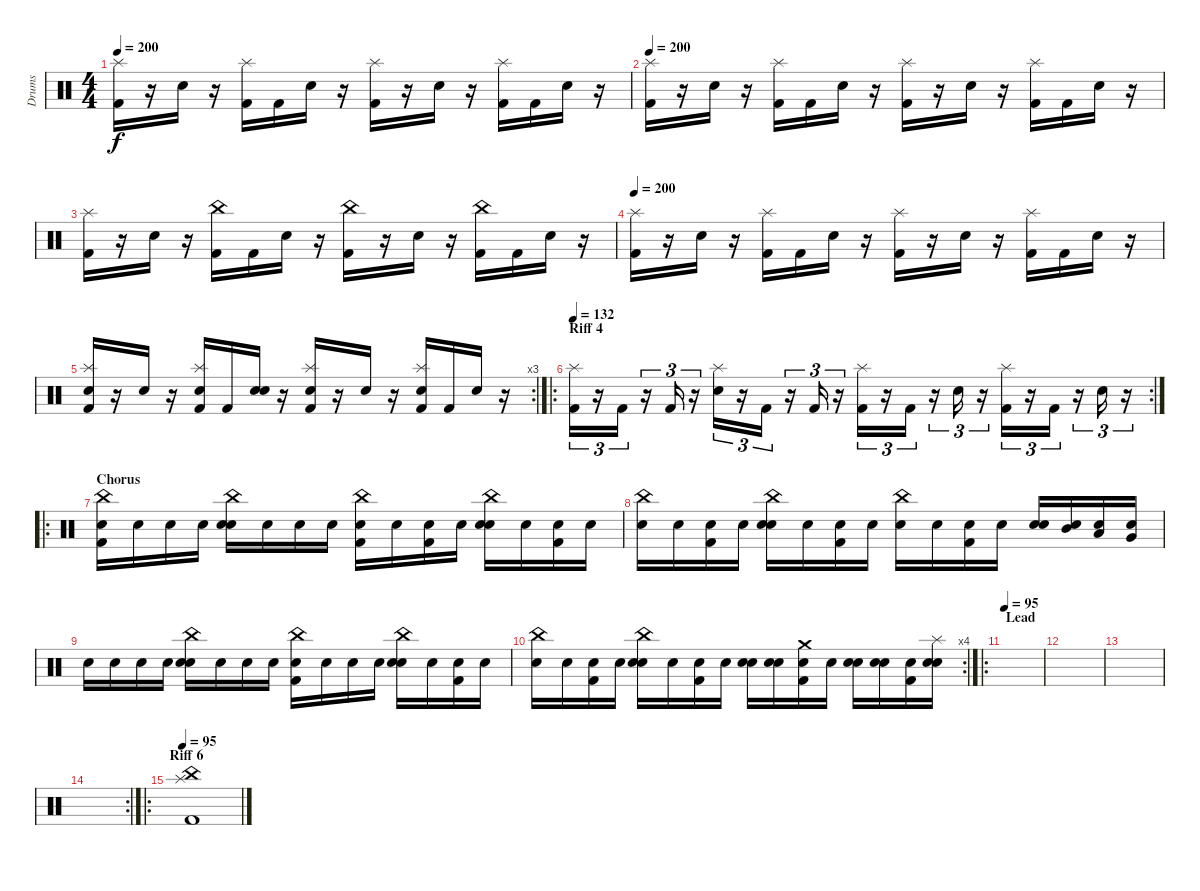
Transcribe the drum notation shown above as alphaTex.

\track ("Drums" "Drums") {instrument percussion}
\staff {score}
\articulation defaults
\ts (4 4)
\tempo 200
\clef neutral
\ks c
("Kick (hit) 2" "Splash (hit)").16{dy f} r.16 "Snare (hit) 2".16 r.16 ("Kick (hit) 2" "Splash (hit)").16 "Kick (hit) 2".16 "Snare (hit) 2".16 r.16 ("Kick (hit) 2" "Splash (hit)").16 r.16 "Snare (hit) 2".16 r.16 ("Kick (hit) 2" "Splash (hit)").16 "Kick (hit) 2".16 "Snare (hit) 2".16 r.16 |
\tempo 200
("Kick (hit) 2" "Splash (hit)").16 r.16 "Snare (hit) 2".16 r.16 ("Kick (hit) 2" "Splash (hit)").16 "Kick (hit) 2".16 "Snare (hit) 2".16 r.16 ("Kick (hit) 2" "Splash (hit)").16 r.16 "Snare (hit) 2".16 r.16 ("Kick (hit) 2" "Splash (hit)").16 "Kick (hit) 2".16 "Snare (hit) 2".16 r.16 |
("Kick (hit) 2" "Splash (hit)").16 r.16 "Snare (hit) 2".16 r.16 ("Kick (hit) 2" "China (hit)").16 "Kick (hit) 2".16 "Snare (hit) 2".16 r.16 ("Kick (hit) 2" "China (hit)").16 r.16 "Snare (hit) 2".16 r.16 ("Kick (hit) 2" "China (hit)").16 "Kick (hit) 2".16 "Snare (hit) 2".16 r.16 |
\tempo 200
("Kick (hit) 2" "Splash (hit)").16 r.16 "Snare (hit) 2".16 r.16 ("Kick (hit) 2" "Splash (hit)").16 "Kick (hit) 2".16 "Snare (hit) 2".16 r.16 ("Kick (hit) 2" "Splash (hit)").16 r.16 "Snare (hit) 2".16 r.16 ("Kick (hit) 2" "Splash (hit)").16 "Kick (hit) 2".16 "Snare (hit) 2".16 r.16 |
\rc 3
("Kick (hit) 2" "Snare (hit) 2" "Splash (hit)").16 r.16 "Snare (hit) 2".16 r.16 ("Kick (hit) 2" "Snare (hit) 2" "Splash (hit)").16 "Kick (hit) 2".16 ("Snare (hit) 2" "Snare (hit) 2").16 r.16 ("Kick (hit) 2" "Snare (hit) 2" "Splash (hit)").16 r.16 "Snare (hit) 2".16 r.16 ("Kick (hit) 2" "Snare (hit) 2" "Splash (hit)").16 "Kick (hit) 2".16 "Snare (hit) 2".16 r.16 |
\ro
\rc 2
\section ("" "Riff 4")
\tempo 132
("Kick (hit) 2" "Splash (hit)").16{tu (3 2)} r.16{tu (3 2)} "Kick (hit) 2".16{tu (3 2)} r.16{tu (3 2)} "Kick (hit) 2".16{tu (3 2)} r.16{tu (3 2)} ("Snare (hit) 2" "Splash (hit)").16{tu (3 2)} r.16{tu (3 2)} "Kick (hit) 2".16{tu (3 2)} r.16{tu (3 2)} "Kick (hit) 2".16{tu (3 2)} r.16{tu (3 2)} ("Kick (hit) 2" "Splash (hit)").16{tu (3 2)} r.16{tu (3 2)} "Kick (hit) 2".16{tu (3 2)} r.16{tu (3 2)} "Snare (hit) 2".16{tu (3 2)} r.16{tu (3 2)} ("Kick (hit) 2" "Splash (hit)").16{tu (3 2)} r.16{tu (3 2)} "Kick (hit) 2".16{tu (3 2)} r.16{tu (3 2)} "Snare (hit) 2".16{tu (3 2)} r.16{tu (3 2)} |
\ro
\section ("" "Chorus")
("Snare (hit)" "Kick (hit) 2" "China (hit)").16 "Snare (hit)".16 "Snare (hit)".16 "Snare (hit)".16 ("Snare (hit)" "Snare (hit) 2" "China (hit)").16 "Snare (hit)".16 "Snare (hit)".16 "Snare (hit)".16 ("Snare (hit)" "Kick (hit) 2" "China (hit)").16 "Snare (hit)".16 ("Snare (hit)" "Kick (hit) 2").16 "Snare (hit)".16 ("Snare (hit)" "Snare (hit) 2" "China (hit)").16 "Snare (hit)".16 ("Snare (hit)" "Kick (hit) 2").16 "Snare (hit)".16 |
("Snare (hit)" "China (hit)").16 "Snare (hit)".16 ("Snare (hit)" "Kick (hit) 2").16 "Snare (hit)".16 ("Snare (hit)" "Snare (hit) 2" "China (hit)").16 "Snare (hit)".16 ("Snare (hit)" "Kick (hit) 2").16 "Snare (hit)".16 ("Snare (hit)" "China (hit)").16 "Snare (hit)".16 ("Snare (hit)" "Kick (hit) 2").16 "Snare (hit)".16 ("Snare (hit)" "Snare (hit) 2").16 ("Snare (hit)" "Mid Tom (hit)").16 ("Snare (hit)" "Low Tom (hit)").16 ("Snare (hit)" "Very Low Tom (hit)").16 |
"Snare (hit)".16 "Snare (hit)".16 "Snare (hit)".16 "Snare (hit)".16 ("Snare (hit)" "Snare (hit) 2" "China (hit)").16 "Snare (hit)".16 "Snare (hit)".16 "Snare (hit)".16 ("Snare (hit)" "Kick (hit) 2" "China (hit)").16 "Snare (hit)".16 "Snare (hit)".16 "Snare (hit)".16 ("Snare (hit)" "Snare (hit) 2" "China (hit)").16 "Snare (hit)".16 ("Snare (hit)" "Kick (hit) 2").16 "Snare (hit)".16 |
\rc 4
("Snare (hit)" "China (hit)").16 "Snare (hit)".16 ("Snare (hit)" "Kick (hit) 2").16 "Snare (hit)".16 ("Snare (hit)" "Snare (hit) 2" "China (hit)").16 "Snare (hit)".16 ("Snare (hit)" "Kick (hit) 2").16 "Snare (hit)".16 ("Snare (hit)" "Snare (hit) 2").16 ("Snare (hit)" "Snare (hit) 2").16 ("Snare (hit)" "Kick (hit) 2" "Crash medium (hit)").16 "Snare (hit)".16 ("Snare (hit)" "Snare (hit) 2").16 ("Snare (hit)" "Snare (hit) 2").16 ("Snare (hit)" "Kick (hit) 2").16 ("Snare (hit)" "Snare (hit) 2" "Splash (hit)").16 |
\ro
\section ("" "Lead")
\tempo 95
|
|
|
\rc 2
|
\ro
\section ("" "Riff 6")
\tempo 95
("Kick (hit) 2" "Splash (hit)" "China (hit)").1
